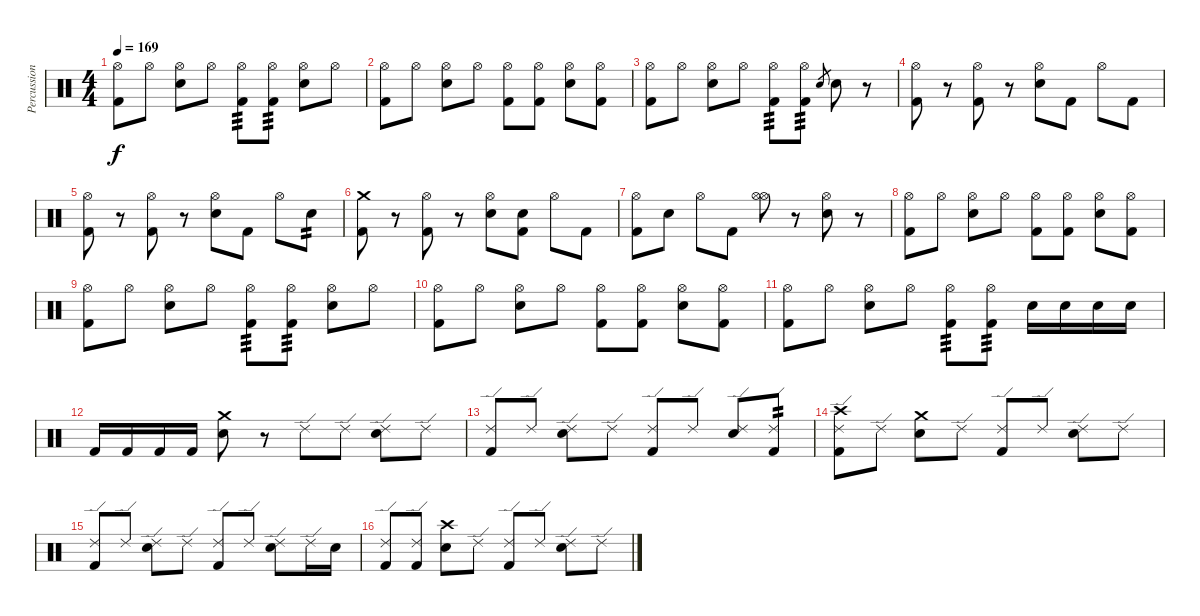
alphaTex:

\track ("Percussion" "Percussion") {instrument percussion}
\staff {score}
\articulation defaults
\ts (4 4)
\tempo 169
\clef neutral
\ks c
("Hi-Hat (open)" "Kick (hit) 2").8{dy f} "Hi-Hat (open)".8 ("Hi-Hat (open)" "Electric Snare (hit)").8 "Hi-Hat (open)".8 ("Hi-Hat (open)" "Kick (hit) 2").8{tp 3} ("Hi-Hat (open)" "Kick (hit) 2").8{tp 3} ("Hi-Hat (open)" "Electric Snare (hit)").8 "Hi-Hat (open)".8 |
("Hi-Hat (open)" "Kick (hit) 2").8 "Hi-Hat (open)".8 ("Hi-Hat (open)" "Electric Snare (hit)").8 "Hi-Hat (open)".8 ("Hi-Hat (open)" "Kick (hit) 2").8 ("Hi-Hat (open)" "Kick (hit) 2").8 ("Hi-Hat (open)" "Electric Snare (hit)").8 ("Hi-Hat (open)" "Kick (hit) 2").8 |
("Hi-Hat (open)" "Kick (hit) 2").8 "Hi-Hat (open)".8 ("Hi-Hat (open)" "Electric Snare (hit)").8 "Hi-Hat (open)".8 ("Hi-Hat (open)" "Kick (hit) 2").8{tp 3} ("Hi-Hat (open)" "Kick (hit) 2").8{tp 3} "Electric Snare (hit)".8{gr} "Electric Snare (hit)".8 r.8 |
("Hi-Hat (open)" "Kick (hit) 2").8 r.8 ("Hi-Hat (open)" "Kick (hit) 2").8 r.8 ("Hi-Hat (open)" "Electric Snare (hit)").8 "Kick (hit) 2".8 "Hi-Hat (open)".8 "Kick (hit) 2".8 |
("Hi-Hat (open)" "Kick (hit) 2").8 r.8 ("Hi-Hat (open)" "Kick (hit) 2").8 r.8 ("Hi-Hat (open)" "Electric Snare (hit)").8 "Kick (hit) 2".8 "Hi-Hat (open)".8 "Electric Snare (hit)".8{tp 2} |
("Crash medium (hit)" "Kick (hit) 2").8 r.8 ("Hi-Hat (open)" "Kick (hit) 2").8 r.8 ("Hi-Hat (open)" "Electric Snare (hit)").8 ("Electric Snare (hit)" "Kick (hit) 2").8 "Hi-Hat (open)".8 "Kick (hit) 2".8 |
("Hi-Hat (open)" "Kick (hit) 2").8 "Electric Snare (hit)".8 "Hi-Hat (open)".8 "Kick (hit) 2".8 ("Hi-Hat (open)" "Hi-Hat (open)").8 r.8 ("Hi-Hat (open)" "Electric Snare (hit)").8 r.8 |
("Hi-Hat (open)" "Kick (hit) 2").8 "Hi-Hat (open)".8 ("Hi-Hat (open)" "Electric Snare (hit)").8 "Hi-Hat (open)".8 ("Hi-Hat (open)" "Kick (hit) 2").8 ("Hi-Hat (open)" "Kick (hit) 2").8 ("Hi-Hat (open)" "Electric Snare (hit)").8 ("Hi-Hat (open)" "Kick (hit) 2").8 |
("Hi-Hat (open)" "Kick (hit) 2").8 "Hi-Hat (open)".8 ("Hi-Hat (open)" "Electric Snare (hit)").8 "Hi-Hat (open)".8 ("Hi-Hat (open)" "Kick (hit) 2").8{tp 3} ("Hi-Hat (open)" "Kick (hit) 2").8{tp 3} ("Hi-Hat (open)" "Electric Snare (hit)").8 "Hi-Hat (open)".8 |
("Hi-Hat (open)" "Kick (hit) 2").8 "Hi-Hat (open)".8 ("Hi-Hat (open)" "Electric Snare (hit)").8 "Hi-Hat (open)".8 ("Hi-Hat (open)" "Kick (hit) 2").8 ("Hi-Hat (open)" "Kick (hit) 2").8 ("Hi-Hat (open)" "Electric Snare (hit)").8 ("Hi-Hat (open)" "Kick (hit) 2").8 |
("Hi-Hat (open)" "Kick (hit) 2").8 "Hi-Hat (open)".8 ("Hi-Hat (open)" "Electric Snare (hit)").8 "Hi-Hat (open)".8 ("Hi-Hat (open)" "Kick (hit) 2").8{tp 3} ("Hi-Hat (open)" "Kick (hit) 2").8{tp 3} "Electric Snare (hit)".16 "Electric Snare (hit)".16 "Electric Snare (hit)".16 "Electric Snare (hit)".16 |
"Kick (hit) 2".16 "Kick (hit) 2".16 "Kick (hit) 2".16 "Kick (hit) 2".16 ("Crash medium (hit)" "Electric Snare (hit)").8 r.8 "Ride (edge) 2".8 "Ride (edge) 2".8 ("Ride (edge) 2" "Electric Snare (hit)").8 "Ride (edge) 2".8 |
("Ride (edge) 2" "Kick (hit) 2").8 "Ride (edge) 2".8 ("Ride (edge) 2" "Electric Snare (hit)").8 "Ride (edge) 2".8 ("Ride (edge) 2" "Kick (hit) 2").8 "Ride (edge) 2".8 ("Ride (edge) 2" "Electric Snare (hit)").8 ("Ride (edge) 2" "Kick (hit) 2").8{tp 2} |
("Ride (edge) 2" "Crash high (hit)" "Kick (hit) 2").8 "Ride (edge) 2".8 ("Crash medium (hit)" "Electric Snare (hit)").8 "Ride (edge) 2".8 ("Ride (edge) 2" "Kick (hit) 2").8 "Ride (edge) 2".8 ("Ride (edge) 2" "Electric Snare (hit)").8 "Ride (edge) 2".8 |
("Ride (edge) 2" "Kick (hit) 2").8 "Ride (edge) 2".8 ("Ride (edge) 2" "Electric Snare (hit)").8 "Ride (edge) 2".8 ("Ride (edge) 2" "Kick (hit) 2").8 "Ride (edge) 2".8 ("Ride (edge) 2" "Electric Snare (hit)").8 "Ride (edge) 2".16 "Electric Snare (hit)".16 |
("Ride (edge) 2" "Kick (hit) 2").8 ("Ride (edge) 2" "Kick (hit) 2").8 ("Crash high (hit)" "Electric Snare (hit)").8 "Ride (edge) 2".8 ("Ride (edge) 2" "Kick (hit) 2").8 "Ride (edge) 2".8 ("Ride (edge) 2" "Electric Snare (hit)").8 "Ride (edge) 2".8
